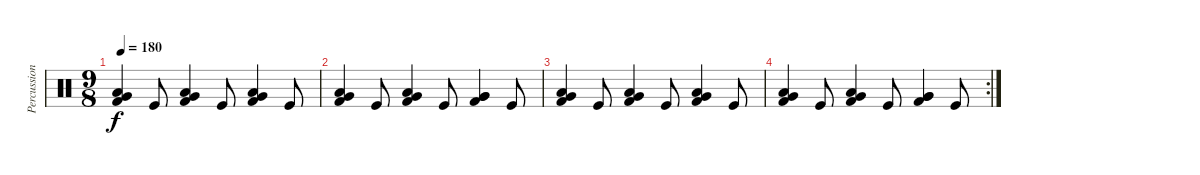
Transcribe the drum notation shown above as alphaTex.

\track ("Percussion" "Percussion") {instrument percussion}
\staff {score}
\articulation defaults
\ts (9 8)
\tempo 180
\clef neutral
\ks c
("Very Low Tom (hit)" "Kick (hit) 2" "Low Floor Tom (hit)").4{dy f} "Kick (hit)".8 ("Very Low Tom (hit)" "Kick (hit) 2" "Low Floor Tom (hit)").4 "Kick (hit)".8 ("Very Low Tom (hit)" "Kick (hit) 2" "Low Tom (hit)").4 "Kick (hit)".8 |
("Very Low Tom (hit)" "Kick (hit) 2" "Low Floor Tom (hit)").4 "Kick (hit)".8 ("Very Low Tom (hit)" "Kick (hit) 2" "Low Floor Tom (hit)").4 "Kick (hit)".8 ("Very Low Tom (hit)" "Kick (hit) 2" "Very Low Tom (hit)").4 "Kick (hit)".8 |
("Very Low Tom (hit)" "Kick (hit) 2" "Low Floor Tom (hit)").4 "Kick (hit)".8 ("Very Low Tom (hit)" "Kick (hit) 2" "Low Floor Tom (hit)").4 "Kick (hit)".8 ("Very Low Tom (hit)" "Kick (hit) 2" "Low Tom (hit)").4 "Kick (hit)".8 |
\rc 2
("Very Low Tom (hit)" "Kick (hit) 2" "Low Floor Tom (hit)").4 "Kick (hit)".8 ("Very Low Tom (hit)" "Kick (hit) 2" "Low Floor Tom (hit)").4 "Kick (hit)".8 ("Very Low Tom (hit)" "Kick (hit) 2" "Very Low Tom (hit)").4 "Kick (hit)".8
